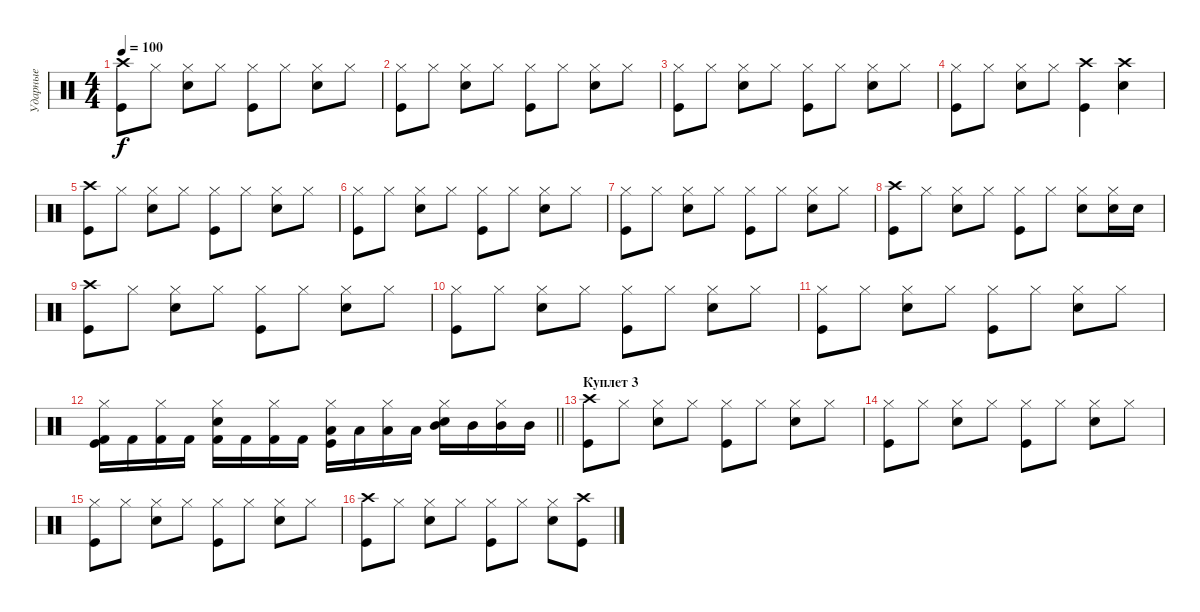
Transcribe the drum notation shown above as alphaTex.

\track ("Ударные" "Ударные") {instrument percussion}
\staff {score}
\articulation defaults
\ts (4 4)
\tempo 100
\clef neutral
\ks c
("Kick (hit)" "Crash high (hit)").8{dy f} "Hi-Hat (closed)".8 ("Snare (hit) 2" "Hi-Hat (closed)").8 "Hi-Hat (closed)".8 ("Kick (hit)" "Hi-Hat (closed)").8 "Hi-Hat (closed)".8 ("Snare (hit) 2" "Hi-Hat (closed)").8 "Hi-Hat (closed)".8 |
("Kick (hit)" "Hi-Hat (closed)").8 "Hi-Hat (closed)".8 ("Snare (hit) 2" "Hi-Hat (closed)").8 "Hi-Hat (closed)".8 ("Kick (hit)" "Hi-Hat (closed)").8 "Hi-Hat (closed)".8 ("Snare (hit) 2" "Hi-Hat (closed)").8 "Hi-Hat (closed)".8 |
("Kick (hit)" "Hi-Hat (closed)").8 "Hi-Hat (closed)".8 ("Snare (hit) 2" "Hi-Hat (closed)").8 "Hi-Hat (closed)".8 ("Kick (hit)" "Hi-Hat (closed)").8 "Hi-Hat (closed)".8 ("Snare (hit) 2" "Hi-Hat (closed)").8 "Hi-Hat (closed)".8 |
("Kick (hit)" "Hi-Hat (closed)").8 "Hi-Hat (closed)".8 ("Snare (hit) 2" "Hi-Hat (closed)").8 "Hi-Hat (closed)".8 ("Kick (hit)" "Crash high (hit)").4 ("Snare (hit) 2" "Crash high (hit)").4 |
("Kick (hit)" "Crash high (hit)").8 "Hi-Hat (closed)".8 ("Snare (hit) 2" "Hi-Hat (closed)").8 "Hi-Hat (closed)".8 ("Kick (hit)" "Hi-Hat (closed)").8 "Hi-Hat (closed)".8 ("Snare (hit) 2" "Hi-Hat (closed)").8 "Hi-Hat (closed)".8 |
("Kick (hit)" "Hi-Hat (closed)").8 "Hi-Hat (closed)".8 ("Snare (hit) 2" "Hi-Hat (closed)").8 "Hi-Hat (closed)".8 ("Kick (hit)" "Hi-Hat (closed)").8 "Hi-Hat (closed)".8 ("Snare (hit) 2" "Hi-Hat (closed)").8 "Hi-Hat (closed)".8 |
("Kick (hit)" "Hi-Hat (closed)").8 "Hi-Hat (closed)".8 ("Snare (hit) 2" "Hi-Hat (closed)").8 "Hi-Hat (closed)".8 ("Kick (hit)" "Hi-Hat (closed)").8 "Hi-Hat (closed)".8 ("Snare (hit) 2" "Hi-Hat (closed)").8 "Hi-Hat (closed)".8 |
("Kick (hit)" "Crash high (hit)").8 "Hi-Hat (closed)".8 ("Snare (hit) 2" "Hi-Hat (closed)").8 "Hi-Hat (closed)".8 ("Kick (hit)" "Hi-Hat (closed)").8 "Hi-Hat (closed)".8 ("Snare (hit) 2" "Hi-Hat (closed)").8 ("Snare (hit) 2" "Hi-Hat (closed)").16 "Snare (hit) 2".16 |
("Kick (hit)" "Crash high (hit)").8 "Hi-Hat (closed)".8 ("Snare (hit) 2" "Hi-Hat (closed)").8 "Hi-Hat (closed)".8 ("Kick (hit)" "Hi-Hat (closed)").8 "Hi-Hat (closed)".8 ("Snare (hit) 2" "Hi-Hat (closed)").8 "Hi-Hat (closed)".8 |
("Kick (hit)" "Hi-Hat (closed)").8 "Hi-Hat (closed)".8 ("Snare (hit) 2" "Hi-Hat (closed)").8 "Hi-Hat (closed)".8 ("Kick (hit)" "Hi-Hat (closed)").8 "Hi-Hat (closed)".8 ("Snare (hit) 2" "Hi-Hat (closed)").8 "Hi-Hat (closed)".8 |
("Kick (hit)" "Hi-Hat (closed)").8 "Hi-Hat (closed)".8 ("Snare (hit) 2" "Hi-Hat (closed)").8 "Hi-Hat (closed)".8 ("Kick (hit)" "Hi-Hat (closed)").8 "Hi-Hat (closed)".8 ("Snare (hit) 2" "Hi-Hat (closed)").8 "Hi-Hat (closed)".8 |
\barLineRight lightlight
("Kick (hit)" "Kick (hit) 2" "Hi-Hat (closed)").16 "Kick (hit) 2".16 ("Kick (hit) 2" "Hi-Hat (closed)").16 "Kick (hit) 2".16 ("Snare (hit) 2" "Kick (hit) 2" "Hi-Hat (closed)").16 "Kick (hit) 2".16 ("Kick (hit) 2" "Hi-Hat (closed)").16 "Kick (hit) 2".16 ("Kick (hit)" "Low Tom (hit)" "Hi-Hat (closed)").16 "Low Tom (hit)".16 ("Low Tom (hit)" "Hi-Hat (closed)").16 "Low Tom (hit)".16 ("Snare (hit) 2" "Mid Tom (hit)" "Hi-Hat (closed)").16 "Mid Tom (hit)".16 ("Mid Tom (hit)" "Hi-Hat (closed)").16 "Mid Tom (hit)".16 |
\section ("" "Куплет 3")
("Kick (hit)" "Crash high (hit)").8 "Hi-Hat (closed)".8 ("Snare (hit) 2" "Hi-Hat (closed)").8 "Hi-Hat (closed)".8 ("Kick (hit)" "Hi-Hat (closed)").8 "Hi-Hat (closed)".8 ("Snare (hit) 2" "Hi-Hat (closed)").8 "Hi-Hat (closed)".8 |
("Kick (hit)" "Hi-Hat (closed)").8 "Hi-Hat (closed)".8 ("Snare (hit) 2" "Hi-Hat (closed)").8 "Hi-Hat (closed)".8 ("Kick (hit)" "Hi-Hat (closed)").8 "Hi-Hat (closed)".8 ("Snare (hit) 2" "Hi-Hat (closed)").8 "Hi-Hat (closed)".8 |
("Kick (hit)" "Hi-Hat (closed)").8 "Hi-Hat (closed)".8 ("Snare (hit) 2" "Hi-Hat (closed)").8 "Hi-Hat (closed)".8 ("Kick (hit)" "Hi-Hat (closed)").8 "Hi-Hat (closed)".8 ("Snare (hit) 2" "Hi-Hat (closed)").8 "Hi-Hat (closed)".8 |
("Kick (hit)" "Crash high (hit)").8 "Hi-Hat (closed)".8 ("Snare (hit) 2" "Hi-Hat (closed)").8 "Hi-Hat (closed)".8 ("Kick (hit)" "Hi-Hat (closed)").8 "Hi-Hat (closed)".8 ("Snare (hit) 2" "Hi-Hat (closed)").8 ("Kick (hit)" "Crash high (hit)").8
